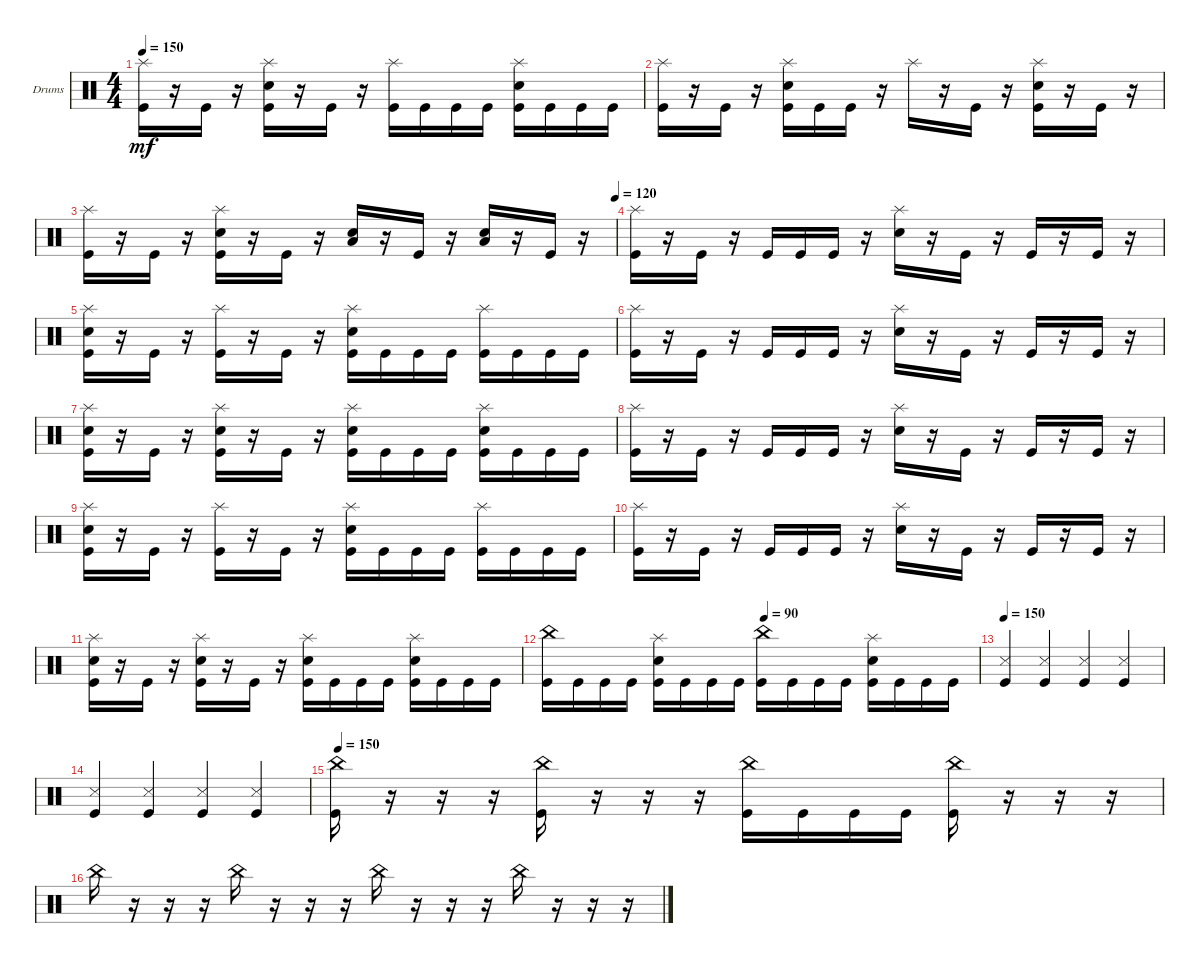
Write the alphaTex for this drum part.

\defaultSystemsLayout 4
\bracketExtendMode groupsimilarinstruments
\firstSystemTrackNameOrientation horizontal
\otherSystemsTrackNameOrientation horizontal
\track ("Drumkit" "Drums") {instrument percussion}
\staff {score}
\articulation defaults
\ts (4 4)
\tempo 150
\clef neutral
\ks c
("Splash (hit)" "Kick (hit)").16{dy mf} r.16 "Kick (hit)".16 r.16 ("Splash (hit)" "Kick (hit)" "Snare (hit) 2").16 r.16 "Kick (hit)".16 r.16 ("Splash (hit)" "Kick (hit)").16 "Kick (hit)".16 "Kick (hit)".16 "Kick (hit)".16 ("Splash (hit)" "Kick (hit)" "Snare (hit) 2").16 "Kick (hit)".16 "Kick (hit)".16 "Kick (hit)".16 |
("Splash (hit)" "Kick (hit)").16 r.16 "Kick (hit)".16 r.16 ("Splash (hit)" "Kick (hit)" "Snare (hit) 2").16 "Kick (hit)".16 "Kick (hit)".16 r.16 "Splash (hit)".16 r.16 "Kick (hit)".16 r.16 ("Splash (hit)" "Kick (hit)" "Snare (hit) 2").16 r.16 "Kick (hit)".16 r.16 |
\tempo (120 1)
("Splash (hit)" "Kick (hit)").16 r.16 "Kick (hit)".16 r.16 ("Splash (hit)" "Kick (hit)" "Snare (hit) 2").16 r.16 "Kick (hit)".16 r.16 ("Snare (hit) 2" "Low Tom (hit)").16 r.16 "Kick (hit)".16 r.16 ("Low Tom (hit)" "Snare (hit) 2").16 r.16 "Kick (hit)".16 r.16 |
("Splash (hit)" "Kick (hit)").16 r.16 "Kick (hit)".16 r.16 "Kick (hit)".16 "Kick (hit)".16 "Kick (hit)".16 r.16 ("Splash (hit)" "Snare (hit) 2").16 r.16 "Kick (hit)".16 r.16 "Kick (hit)".16 r.16 "Kick (hit)".16 r.16 |
("Splash (hit)" "Kick (hit)" "Snare (hit) 2").16 r.16 "Kick (hit)".16 r.16 ("Splash (hit)" "Kick (hit)").16 r.16 "Kick (hit)".16 r.16 ("Splash (hit)" "Kick (hit)" "Snare (hit) 2").16 "Kick (hit)".16 "Kick (hit)".16 "Kick (hit)".16 ("Splash (hit)" "Kick (hit)").16 "Kick (hit)".16 "Kick (hit)".16 "Kick (hit)".16 |
("Splash (hit)" "Kick (hit)").16 r.16 "Kick (hit)".16 r.16 "Kick (hit)".16 "Kick (hit)".16 "Kick (hit)".16 r.16 ("Splash (hit)" "Snare (hit) 2").16 r.16 "Kick (hit)".16 r.16 "Kick (hit)".16 r.16 "Kick (hit)".16 r.16 |
("Splash (hit)" "Kick (hit)" "Snare (hit) 2").16 r.16 "Kick (hit)".16 r.16 ("Splash (hit)" "Kick (hit)" "Snare (hit) 2").16 r.16 "Kick (hit)".16 r.16 ("Splash (hit)" "Kick (hit)" "Snare (hit) 2").16 "Kick (hit)".16 "Kick (hit)".16 "Kick (hit)".16 ("Splash (hit)" "Kick (hit)" "Snare (hit) 2").16 "Kick (hit)".16 "Kick (hit)".16 "Kick (hit)".16 |
("Splash (hit)" "Kick (hit)").16 r.16 "Kick (hit)".16 r.16 "Kick (hit)".16 "Kick (hit)".16 "Kick (hit)".16 r.16 ("Splash (hit)" "Snare (hit) 2").16 r.16 "Kick (hit)".16 r.16 "Kick (hit)".16 r.16 "Kick (hit)".16 r.16 |
("Splash (hit)" "Kick (hit)" "Snare (hit) 2").16 r.16 "Kick (hit)".16 r.16 ("Splash (hit)" "Kick (hit)").16 r.16 "Kick (hit)".16 r.16 ("Splash (hit)" "Kick (hit)" "Snare (hit) 2").16 "Kick (hit)".16 "Kick (hit)".16 "Kick (hit)".16 ("Splash (hit)" "Kick (hit)").16 "Kick (hit)".16 "Kick (hit)".16 "Kick (hit)".16 |
("Splash (hit)" "Kick (hit)").16 r.16 "Kick (hit)".16 r.16 "Kick (hit)".16 "Kick (hit)".16 "Kick (hit)".16 r.16 ("Splash (hit)" "Snare (hit) 2").16 r.16 "Kick (hit)".16 r.16 "Kick (hit)".16 r.16 "Kick (hit)".16 r.16 |
("Splash (hit)" "Kick (hit)" "Snare (hit) 2").16 r.16 "Kick (hit)".16 r.16 ("Splash (hit)" "Kick (hit)" "Snare (hit) 2").16 r.16 "Kick (hit)".16 r.16 ("Splash (hit)" "Kick (hit)" "Snare (hit) 2").16 "Kick (hit)".16 "Kick (hit)".16 "Kick (hit)".16 ("Splash (hit)" "Kick (hit)" "Snare (hit) 2").16 "Kick (hit)".16 "Kick (hit)".16 "Kick (hit)".16 |
\tempo (90 0.5)
("Kick (hit)" "China (hit)").16 "Kick (hit)".16 "Kick (hit)".16 "Kick (hit)".16 ("Kick (hit)" "Splash (hit)" "Snare (hit) 2").16 "Kick (hit)".16 "Kick (hit)".16 "Kick (hit)".16 ("Kick (hit)" "China (hit)").16 "Kick (hit)".16 "Kick (hit)".16 "Kick (hit)".16 ("Kick (hit)" "Splash (hit)" "Snare (hit) 2").16 "Kick (hit)".16 "Kick (hit)".16 "Kick (hit)".16 |
\tempo 150
("Kick (hit)" "Snare (side stick) 3").4 ("Kick (hit)" "Snare (side stick) 3").4 ("Kick (hit)" "Snare (side stick) 3").4 ("Kick (hit)" "Snare (side stick) 3").4 |
("Kick (hit)" "Snare (side stick) 3").4 ("Kick (hit)" "Snare (side stick) 3").4 ("Kick (hit)" "Snare (side stick) 3").4 ("Kick (hit)" "Snare (side stick) 3").4 |
\tempo 150
("Kick (hit)" "China (hit)").16 r.16 r.16 r.16 ("Kick (hit)" "China (hit)").16 r.16 r.16 r.16 ("Kick (hit)" "China (hit)").16 "Kick (hit)".16 "Kick (hit)".16 "Kick (hit)".16 ("Kick (hit)" "China (hit)").16 r.16 r.16 r.16 |
"China (hit)".16 r.16 r.16 r.16 "China (hit)".16 r.16 r.16 r.16 "China (hit)".16 r.16 r.16 r.16 "China (hit)".16 r.16 r.16 r.16
